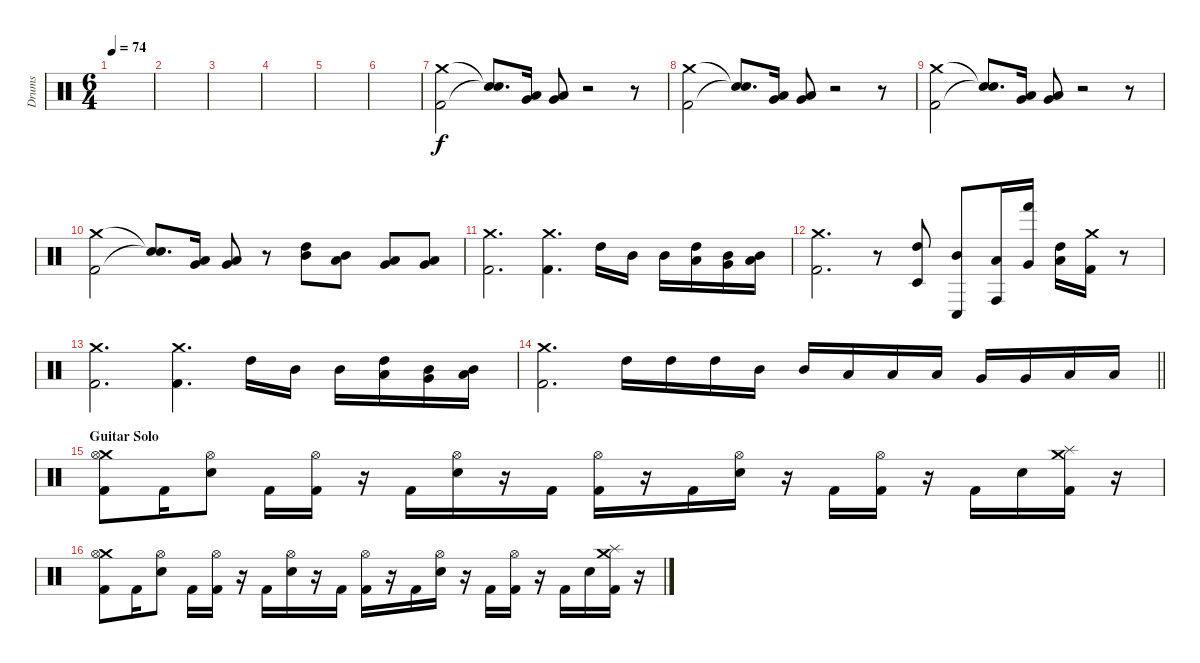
\track ("Drums" "Drums") {instrument percussion}
\staff {score}
\articulation defaults
\ts (6 4)
\tempo 74
\clef neutral
\ks c
|
|
|
|
|
|
("Crash medium (hit)" "Kick (hit) 2").2 ("Snare (hit)"{t} "Snare (hit)"{t}).8{d} ("Very Low Tom (hit)" "Low Floor Tom (hit)").16 ("Very Low Tom (hit)" "Low Floor Tom (hit)").8 r.2 r.8 |
("Crash medium (hit)" "Kick (hit) 2").2 ("Snare (hit)"{t} "Snare (hit)"{t}).8{d} ("Very Low Tom (hit)" "Low Floor Tom (hit)").16 ("Very Low Tom (hit)" "Low Floor Tom (hit)").8 r.2 r.8 |
("Crash medium (hit)" "Kick (hit) 2").2 ("Snare (hit)"{t} "Snare (hit)"{t}).8{d} ("Very Low Tom (hit)" "Low Floor Tom (hit)").16 ("Very Low Tom (hit)" "Low Floor Tom (hit)").8 r.2 r.8 |
("Crash medium (hit)" "Kick (hit) 2").2 ("Snare (hit)"{t} "Snare (hit)"{t}).8{d} ("Very Low Tom (hit)" "Low Floor Tom (hit)").16 ("Very Low Tom (hit)" "Low Floor Tom (hit)").8 r.8 ("High Tom (hit)" "Mid Tom (hit)").8 ("Mid Tom (hit)" "Low Tom (hit)").8 ("Low Tom (hit)" "Very Low Tom (hit)").8 ("Very Low Tom (hit)" "Low Floor Tom (hit)").8 |
("Crash medium (hit)" "Kick (hit) 2").2{d} ("Crash medium (hit)" "Kick (hit) 2").4{d} "High Tom (hit)".16 "Mid Tom (hit)".16 "Mid Tom (hit)".16 ("High Tom (hit)" "Low Tom (hit)").16 ("Mid Tom (hit)" "Very Low Tom (hit)").16 ("Mid Tom (hit)" "Low Floor Tom (hit)").16 |
("Crash medium (hit)" "Kick (hit) 2").2{d} r.8 ("High Tom (hit)" "Timbale low (hit)").8 ("Conga low (hit)" "Mid Tom (hit)").8 ("Conga high (hit)" "Low Tom (hit)").16 ("Hand (hit)" "Very Low Tom (hit)").16 ("High Tom (hit)" "Low Floor Tom (hit)").16 ("Crash medium (hit)" "Kick (hit) 2").16 r.8 |
("Crash medium (hit)" "Kick (hit) 2").2{d} ("Crash medium (hit)" "Kick (hit) 2").4{d} "High Tom (hit)".16 "Mid Tom (hit)".16 "Mid Tom (hit)".16 ("High Tom (hit)" "Low Tom (hit)").16 ("Mid Tom (hit)" "Very Low Tom (hit)").16 ("Mid Tom (hit)" "Low Floor Tom (hit)").16 |
\barLineRight lightlight
("Crash medium (hit)" "Kick (hit) 2").2{d} "High Tom (hit)".16 "High Tom (hit)".16 "High Tom (hit)".16 "Mid Tom (hit)".16 "Mid Tom (hit)".16 "Low Tom (hit)".16 "Low Tom (hit)".16 "Low Tom (hit)".16 "Very Low Tom (hit)".16 "Very Low Tom (hit)".16 "Low Floor Tom (hit)".16 "Low Floor Tom (hit)".16 |
\section ("" "Guitar Solo")
("Crash medium (hit)" "Hi-Hat (open)" "Kick (hit) 2").8 "Kick (hit) 2".16 ("Hi-Hat (open)" "Electric Snare (hit)").8 "Kick (hit) 2".16 ("Hi-Hat (open)" "Kick (hit) 2").16 r.16 "Kick (hit) 2".16 ("Hi-Hat (open)" "Electric Snare (hit)").16 r.16 "Kick (hit) 2".16 ("Hi-Hat (open)" "Kick (hit) 2").16 r.16 "Kick (hit) 2".16 ("Hi-Hat (open)" "Electric Snare (hit)").16 r.16 "Kick (hit) 2".16 ("Hi-Hat (open)" "Kick (hit) 2").16 r.16 "Kick (hit) 2".16 "Electric Snare (hit)".16 ("Crash medium (hit)" "Splash (hit)" "Kick (hit) 2").16 r.16 |
("Crash medium (hit)" "Hi-Hat (open)" "Kick (hit) 2").8 "Kick (hit) 2".16 ("Hi-Hat (open)" "Electric Snare (hit)").8 "Kick (hit) 2".16 ("Hi-Hat (open)" "Kick (hit) 2").16 r.16 "Kick (hit) 2".16 ("Hi-Hat (open)" "Electric Snare (hit)").16 r.16 "Kick (hit) 2".16 ("Hi-Hat (open)" "Kick (hit) 2").16 r.16 "Kick (hit) 2".16 ("Hi-Hat (open)" "Electric Snare (hit)").16 r.16 "Kick (hit) 2".16 ("Hi-Hat (open)" "Kick (hit) 2").16 r.16 "Kick (hit) 2".16 "Electric Snare (hit)".16 ("Crash medium (hit)" "Splash (hit)" "Kick (hit) 2").16 r.16
